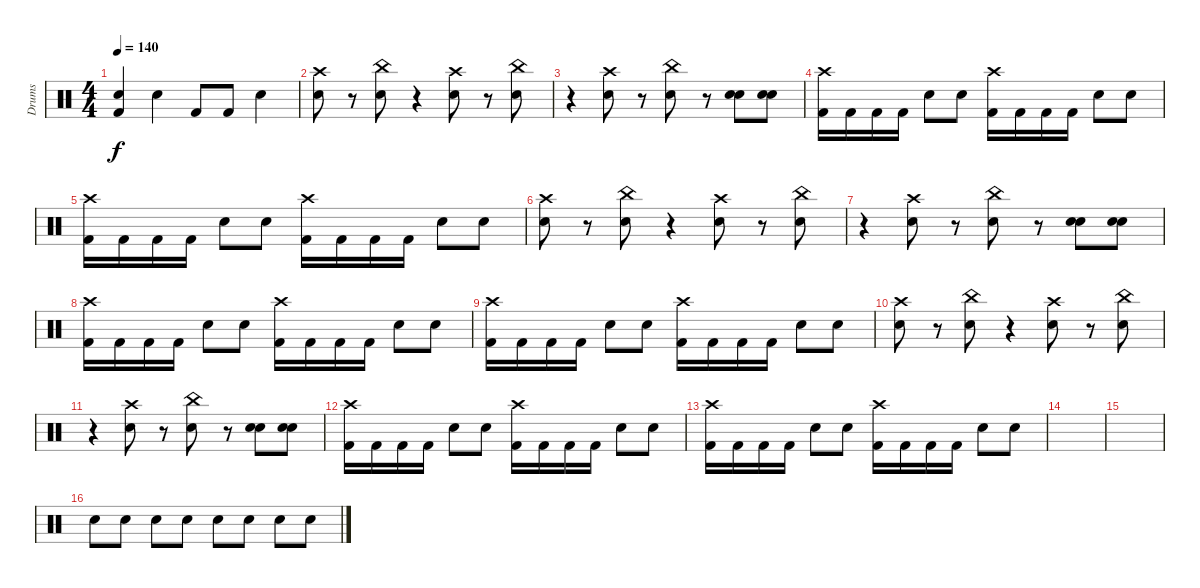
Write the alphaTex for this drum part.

\track ("Drums" "Drums") {instrument percussion}
\staff {score}
\articulation defaults
\ts (4 4)
\tempo 140
\clef neutral
\ks c
("Kick (hit) 2" "Snare (hit) 2").4{dy f} "Snare (hit) 2".4 "Kick (hit) 2".8 "Kick (hit) 2".8 "Snare (hit) 2".4 |
("Snare (hit) 2" "Crash high (hit)").8 r.8 ("Snare (hit) 2" "China (hit)").8 r.4 ("Snare (hit) 2" "Crash high (hit)").8 r.8 ("Snare (hit) 2" "China (hit)").8 |
r.4 ("Snare (hit) 2" "Crash high (hit)").8 r.8 ("Snare (hit) 2" "China (hit)").8 r.8 ("Snare (hit) 2" "Electric Snare (hit)").8 ("Snare (hit) 2" "Electric Snare (hit)").8 |
("Kick (hit) 2" "Crash high (hit)").16 "Kick (hit) 2".16 "Kick (hit) 2".16 "Kick (hit) 2".16 "Snare (hit) 2".8 "Snare (hit) 2".8 ("Kick (hit) 2" "Crash high (hit)").16 "Kick (hit) 2".16 "Kick (hit) 2".16 "Kick (hit) 2".16 "Snare (hit) 2".8 "Snare (hit) 2".8 |
("Kick (hit) 2" "Crash high (hit)").16 "Kick (hit) 2".16 "Kick (hit) 2".16 "Kick (hit) 2".16 "Snare (hit) 2".8 "Snare (hit) 2".8 ("Kick (hit) 2" "Crash high (hit)").16 "Kick (hit) 2".16 "Kick (hit) 2".16 "Kick (hit) 2".16 "Snare (hit) 2".8 "Snare (hit) 2".8 |
("Snare (hit) 2" "Crash high (hit)").8 r.8 ("Snare (hit) 2" "China (hit)").8 r.4 ("Snare (hit) 2" "Crash high (hit)").8 r.8 ("Snare (hit) 2" "China (hit)").8 |
r.4 ("Snare (hit) 2" "Crash high (hit)").8 r.8 ("Snare (hit) 2" "China (hit)").8 r.8 ("Snare (hit) 2" "Electric Snare (hit)").8 ("Snare (hit) 2" "Electric Snare (hit)").8 |
("Kick (hit) 2" "Crash high (hit)").16 "Kick (hit) 2".16 "Kick (hit) 2".16 "Kick (hit) 2".16 "Snare (hit) 2".8 "Snare (hit) 2".8 ("Kick (hit) 2" "Crash high (hit)").16 "Kick (hit) 2".16 "Kick (hit) 2".16 "Kick (hit) 2".16 "Snare (hit) 2".8 "Snare (hit) 2".8 |
("Kick (hit) 2" "Crash high (hit)").16 "Kick (hit) 2".16 "Kick (hit) 2".16 "Kick (hit) 2".16 "Snare (hit) 2".8 "Snare (hit) 2".8 ("Kick (hit) 2" "Crash high (hit)").16 "Kick (hit) 2".16 "Kick (hit) 2".16 "Kick (hit) 2".16 "Snare (hit) 2".8 "Snare (hit) 2".8 |
("Snare (hit) 2" "Crash high (hit)").8 r.8 ("Snare (hit) 2" "China (hit)").8 r.4 ("Snare (hit) 2" "Crash high (hit)").8 r.8 ("Snare (hit) 2" "China (hit)").8 |
r.4 ("Snare (hit) 2" "Crash high (hit)").8 r.8 ("Snare (hit) 2" "China (hit)").8 r.8 ("Snare (hit) 2" "Electric Snare (hit)").8 ("Snare (hit) 2" "Electric Snare (hit)").8 |
("Kick (hit) 2" "Crash high (hit)").16 "Kick (hit) 2".16 "Kick (hit) 2".16 "Kick (hit) 2".16 "Snare (hit) 2".8 "Snare (hit) 2".8 ("Kick (hit) 2" "Crash high (hit)").16 "Kick (hit) 2".16 "Kick (hit) 2".16 "Kick (hit) 2".16 "Snare (hit) 2".8 "Snare (hit) 2".8 |
("Kick (hit) 2" "Crash high (hit)").16 "Kick (hit) 2".16 "Kick (hit) 2".16 "Kick (hit) 2".16 "Snare (hit) 2".8 "Snare (hit) 2".8 ("Kick (hit) 2" "Crash high (hit)").16 "Kick (hit) 2".16 "Kick (hit) 2".16 "Kick (hit) 2".16 "Snare (hit) 2".8 "Snare (hit) 2".8 |
|
|
"Snare (hit) 2".8 "Snare (hit) 2".8 "Snare (hit) 2".8 "Snare (hit) 2".8 "Snare (hit) 2".8 "Snare (hit) 2".8 "Snare (hit) 2".8 "Snare (hit) 2".8
